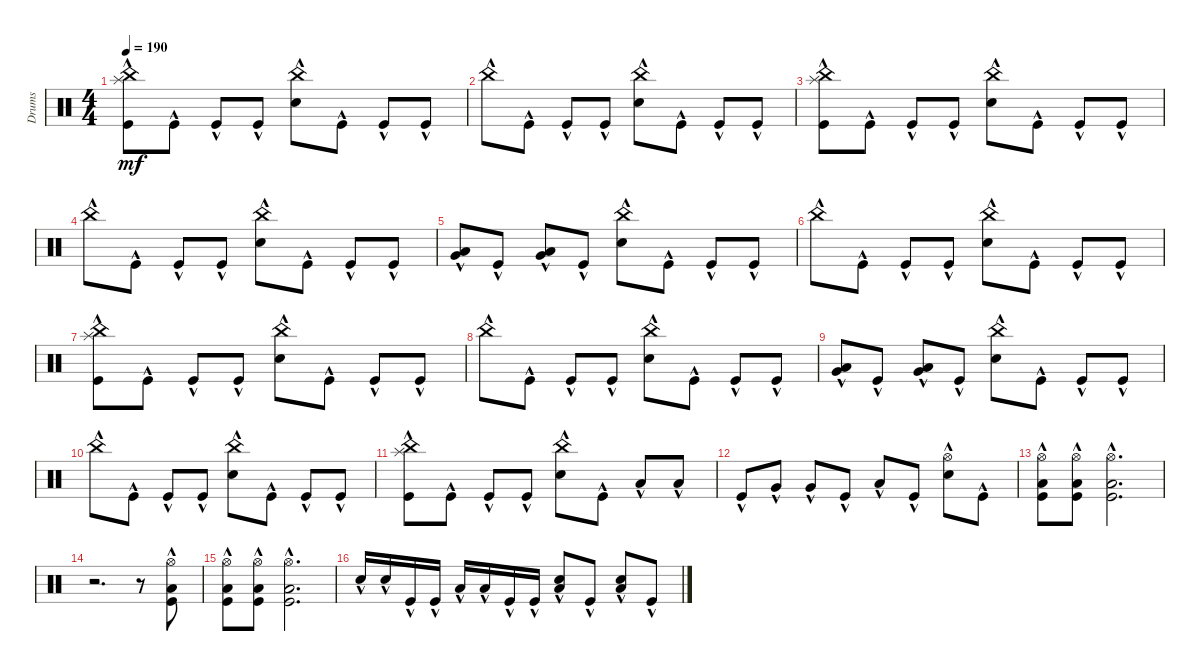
\track ("Drums" "Drums") {instrument percussion}
\staff {score}
\articulation defaults
\ts (4 4)
\tempo 190
\clef neutral
\ks c
("Kick (hit)"{hac} "Splash (hit)"{hac} "China (hit)"{hac}).8{dy mf} "Kick (hit)"{hac}.8 "Kick (hit)"{hac}.8 "Kick (hit)"{hac}.8 ("Snare (hit) 2"{hac} "China (hit)"{hac}).8 "Kick (hit)"{hac}.8 "Kick (hit)"{hac}.8 "Kick (hit)"{hac}.8 |
"China (hit)"{hac}.8 "Kick (hit)"{hac}.8 "Kick (hit)"{hac}.8 "Kick (hit)"{hac}.8 ("Snare (hit) 2"{hac} "China (hit)"{hac}).8 "Kick (hit)"{hac}.8 "Kick (hit)"{hac}.8 "Kick (hit)"{hac}.8 |
("Kick (hit)"{hac} "Splash (hit)"{hac} "China (hit)"{hac}).8 "Kick (hit)"{hac}.8 "Kick (hit)"{hac}.8 "Kick (hit)"{hac}.8 ("Snare (hit) 2"{hac} "China (hit)"{hac}).8 "Kick (hit)"{hac}.8 "Kick (hit)"{hac}.8 "Kick (hit)"{hac}.8 |
"China (hit)"{hac}.8 "Kick (hit)"{hac}.8 "Kick (hit)"{hac}.8 "Kick (hit)"{hac}.8 ("Snare (hit) 2"{hac} "China (hit)"{hac}).8 "Kick (hit)"{hac}.8 "Kick (hit)"{hac}.8 "Kick (hit)"{hac}.8 |
("Low Tom (hit)"{hac} "Very Low Tom (hit)"{hac}).8 "Kick (hit)"{hac}.8 ("Very Low Tom (hit)"{hac} "Low Floor Tom (hit)"{hac}).8 "Kick (hit)"{hac}.8 ("Snare (hit) 2"{hac} "China (hit)"{hac}).8 "Kick (hit)"{hac}.8 "Kick (hit)"{hac}.8 "Kick (hit)"{hac}.8 |
"China (hit)"{hac}.8 "Kick (hit)"{hac}.8 "Kick (hit)"{hac}.8 "Kick (hit)"{hac}.8 ("Snare (hit) 2"{hac} "China (hit)"{hac}).8 "Kick (hit)"{hac}.8 "Kick (hit)"{hac}.8 "Kick (hit)"{hac}.8 |
("Kick (hit)"{hac} "Splash (hit)"{hac} "China (hit)"{hac}).8 "Kick (hit)"{hac}.8 "Kick (hit)"{hac}.8 "Kick (hit)"{hac}.8 ("Snare (hit) 2"{hac} "China (hit)"{hac}).8 "Kick (hit)"{hac}.8 "Kick (hit)"{hac}.8 "Kick (hit)"{hac}.8 |
"China (hit)"{hac}.8 "Kick (hit)"{hac}.8 "Kick (hit)"{hac}.8 "Kick (hit)"{hac}.8 ("Snare (hit) 2"{hac} "China (hit)"{hac}).8 "Kick (hit)"{hac}.8 "Kick (hit)"{hac}.8 "Kick (hit)"{hac}.8 |
("Low Tom (hit)"{hac} "Very Low Tom (hit)"{hac}).8 "Kick (hit)"{hac}.8 ("Very Low Tom (hit)"{hac} "Low Floor Tom (hit)"{hac}).8 "Kick (hit)"{hac}.8 ("Snare (hit) 2"{hac} "China (hit)"{hac}).8 "Kick (hit)"{hac}.8 "Kick (hit)"{hac}.8 "Kick (hit)"{hac}.8 |
"China (hit)"{hac}.8 "Kick (hit)"{hac}.8 "Kick (hit)"{hac}.8 "Kick (hit)"{hac}.8 ("Snare (hit) 2"{hac} "China (hit)"{hac}).8 "Kick (hit)"{hac}.8 "Kick (hit)"{hac}.8 "Kick (hit)"{hac}.8 |
("Kick (hit)"{hac} "Splash (hit)"{hac} "China (hit)"{hac}).8 "Kick (hit)"{hac}.8 "Kick (hit)"{hac}.8 "Kick (hit)"{hac}.8 ("Snare (hit) 2"{hac} "China (hit)"{hac}).8 "Kick (hit)"{hac}.8 "Low Tom (hit)"{hac}.8 "Low Tom (hit)"{hac}.8 |
"Kick (hit)"{hac}.8 "Very Low Tom (hit)"{hac}.8 "Very Low Tom (hit)"{hac}.8 "Kick (hit)"{hac}.8 "Low Floor Tom (hit)"{hac}.8 "Kick (hit)"{hac}.8 ("Snare (hit) 2"{hac} "Hi-Hat (open)"{hac}).8 "Kick (hit)"{hac}.8 |
("Kick (hit)"{hac} "Low Tom (hit)"{hac} "Hi-Hat (open)").8 ("Kick (hit)"{hac} "Low Tom (hit)"{hac} "Hi-Hat (open)").8 ("Kick (hit)"{hac} "Low Tom (hit)"{hac} "Hi-Hat (open)").2{d} |
r.2{d} r.8 ("Kick (hit)"{hac} "Low Tom (hit)"{hac} "Hi-Hat (open)").8 |
("Kick (hit)"{hac} "Low Tom (hit)"{hac} "Hi-Hat (open)").8 ("Kick (hit)"{hac} "Low Tom (hit)"{hac} "Hi-Hat (open)").8 ("Kick (hit)"{hac} "Low Tom (hit)"{hac} "Hi-Hat (open)").2{d} |
"Snare (hit) 2"{hac}.16 "Snare (hit) 2"{hac}.16 "Kick (hit)"{hac}.16 "Kick (hit)"{hac}.16 "Low Tom (hit)"{hac}.16 "Low Tom (hit)"{hac}.16 "Kick (hit)"{hac}.16 "Kick (hit)"{hac}.16 ("Snare (hit) 2"{hac} "Low Floor Tom (hit)"{hac}).8 "Kick (hit)"{hac}.8 ("Low Floor Tom (hit)"{hac} "Snare (hit) 2"{hac}).8 "Kick (hit)"{hac}.8
